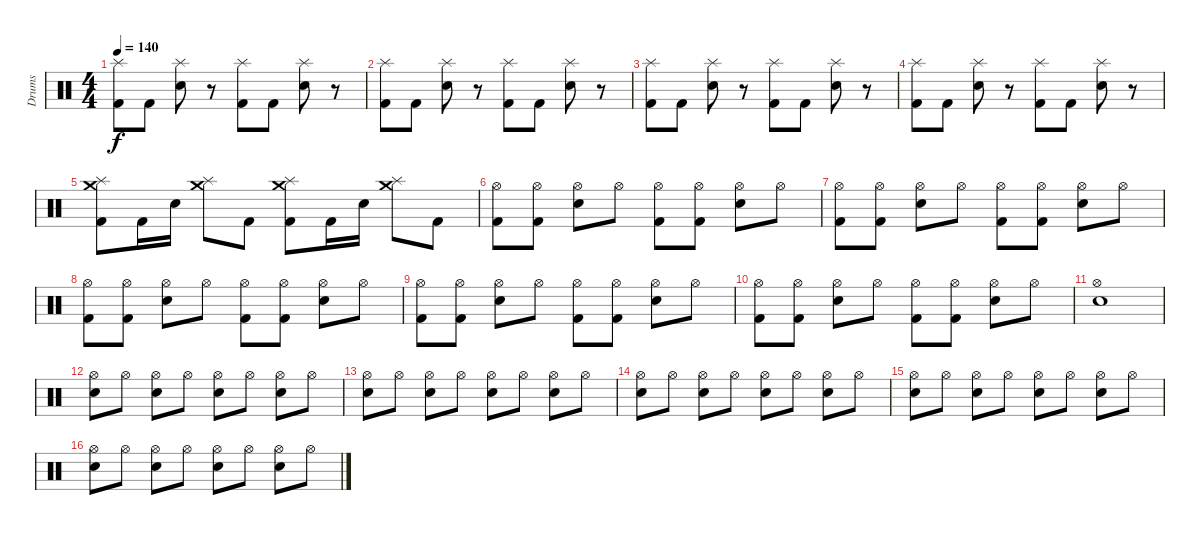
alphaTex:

\track ("Drums" "Drums") {instrument percussion}
\staff {score}
\articulation defaults
\ts (4 4)
\tempo 140
\clef neutral
\ks c
("Splash (hit)" "Kick (hit) 2").8{dy f} "Kick (hit) 2".8 ("Splash (hit)" "Snare (hit) 2").8 r.8 ("Splash (hit)" "Kick (hit) 2").8 "Kick (hit) 2".8 ("Splash (hit)" "Snare (hit) 2").8 r.8 |
("Splash (hit)" "Kick (hit) 2").8 "Kick (hit) 2".8 ("Splash (hit)" "Snare (hit) 2").8 r.8 ("Splash (hit)" "Kick (hit) 2").8 "Kick (hit) 2".8 ("Splash (hit)" "Snare (hit) 2").8 r.8 |
("Splash (hit)" "Kick (hit) 2").8 "Kick (hit) 2".8 ("Splash (hit)" "Snare (hit) 2").8 r.8 ("Splash (hit)" "Kick (hit) 2").8 "Kick (hit) 2".8 ("Splash (hit)" "Snare (hit) 2").8 r.8 |
("Splash (hit)" "Kick (hit) 2").8 "Kick (hit) 2".8 ("Splash (hit)" "Snare (hit) 2").8 r.8 ("Splash (hit)" "Kick (hit) 2").8 "Kick (hit) 2".8 ("Splash (hit)" "Snare (hit) 2").8 r.8 |
("Splash (hit)" "Kick (hit) 2" "Crash medium (hit)").8 "Kick (hit) 2".16 "Snare (hit) 2".16 ("Splash (hit)" "Crash medium (hit)").8 "Kick (hit) 2".8 ("Kick (hit) 2" "Splash (hit)" "Crash medium (hit)").8 "Kick (hit) 2".16 "Snare (hit) 2".16 ("Splash (hit)" "Crash medium (hit)").8 "Kick (hit) 2".8 |
("Kick (hit) 2" "Hi-Hat (open)").8 ("Kick (hit) 2" "Hi-Hat (open)").8 ("Snare (hit) 2" "Hi-Hat (open)").8 "Hi-Hat (open)".8 ("Kick (hit) 2" "Hi-Hat (open)").8 ("Kick (hit) 2" "Hi-Hat (open)").8 ("Snare (hit) 2" "Hi-Hat (open)").8 "Hi-Hat (open)".8 |
("Kick (hit) 2" "Hi-Hat (open)").8 ("Kick (hit) 2" "Hi-Hat (open)").8 ("Snare (hit) 2" "Hi-Hat (open)").8 "Hi-Hat (open)".8 ("Kick (hit) 2" "Hi-Hat (open)").8 ("Kick (hit) 2" "Hi-Hat (open)").8 ("Snare (hit) 2" "Hi-Hat (open)").8 "Hi-Hat (open)".8 |
("Kick (hit) 2" "Hi-Hat (open)").8 ("Kick (hit) 2" "Hi-Hat (open)").8 ("Snare (hit) 2" "Hi-Hat (open)").8 "Hi-Hat (open)".8 ("Kick (hit) 2" "Hi-Hat (open)").8 ("Kick (hit) 2" "Hi-Hat (open)").8 ("Snare (hit) 2" "Hi-Hat (open)").8 "Hi-Hat (open)".8 |
("Kick (hit) 2" "Hi-Hat (open)").8 ("Kick (hit) 2" "Hi-Hat (open)").8 ("Snare (hit) 2" "Hi-Hat (open)").8 "Hi-Hat (open)".8 ("Kick (hit) 2" "Hi-Hat (open)").8 ("Kick (hit) 2" "Hi-Hat (open)").8 ("Snare (hit) 2" "Hi-Hat (open)").8 "Hi-Hat (open)".8 |
("Kick (hit) 2" "Hi-Hat (open)").8 ("Kick (hit) 2" "Hi-Hat (open)").8 ("Snare (hit) 2" "Hi-Hat (open)").8 "Hi-Hat (open)".8 ("Kick (hit) 2" "Hi-Hat (open)").8 ("Kick (hit) 2" "Hi-Hat (open)").8 ("Snare (hit) 2" "Hi-Hat (open)").8 "Hi-Hat (open)".8 |
("Hi-Hat (open)" "Snare (hit) 2").1 |
("Snare (hit) 2" "Hi-Hat (open)").8 "Hi-Hat (open)".8 ("Snare (hit) 2" "Hi-Hat (open)").8 "Hi-Hat (open)".8 ("Snare (hit) 2" "Hi-Hat (open)").8 "Hi-Hat (open)".8 ("Snare (hit) 2" "Hi-Hat (open)").8 "Hi-Hat (open)".8 |
("Snare (hit) 2" "Hi-Hat (open)").8 "Hi-Hat (open)".8 ("Snare (hit) 2" "Hi-Hat (open)").8 "Hi-Hat (open)".8 ("Snare (hit) 2" "Hi-Hat (open)").8 "Hi-Hat (open)".8 ("Snare (hit) 2" "Hi-Hat (open)").8 "Hi-Hat (open)".8 |
("Snare (hit) 2" "Hi-Hat (open)").8 "Hi-Hat (open)".8 ("Snare (hit) 2" "Hi-Hat (open)").8 "Hi-Hat (open)".8 ("Snare (hit) 2" "Hi-Hat (open)").8 "Hi-Hat (open)".8 ("Snare (hit) 2" "Hi-Hat (open)").8 "Hi-Hat (open)".8 |
("Snare (hit) 2" "Hi-Hat (open)").8 "Hi-Hat (open)".8 ("Snare (hit) 2" "Hi-Hat (open)").8 "Hi-Hat (open)".8 ("Snare (hit) 2" "Hi-Hat (open)").8 "Hi-Hat (open)".8 ("Snare (hit) 2" "Hi-Hat (open)").8 "Hi-Hat (open)".8 |
("Snare (hit) 2" "Hi-Hat (open)").8 "Hi-Hat (open)".8 ("Snare (hit) 2" "Hi-Hat (open)").8 "Hi-Hat (open)".8 ("Snare (hit) 2" "Hi-Hat (open)").8 "Hi-Hat (open)".8 ("Snare (hit) 2" "Hi-Hat (open)").8 "Hi-Hat (open)".8
